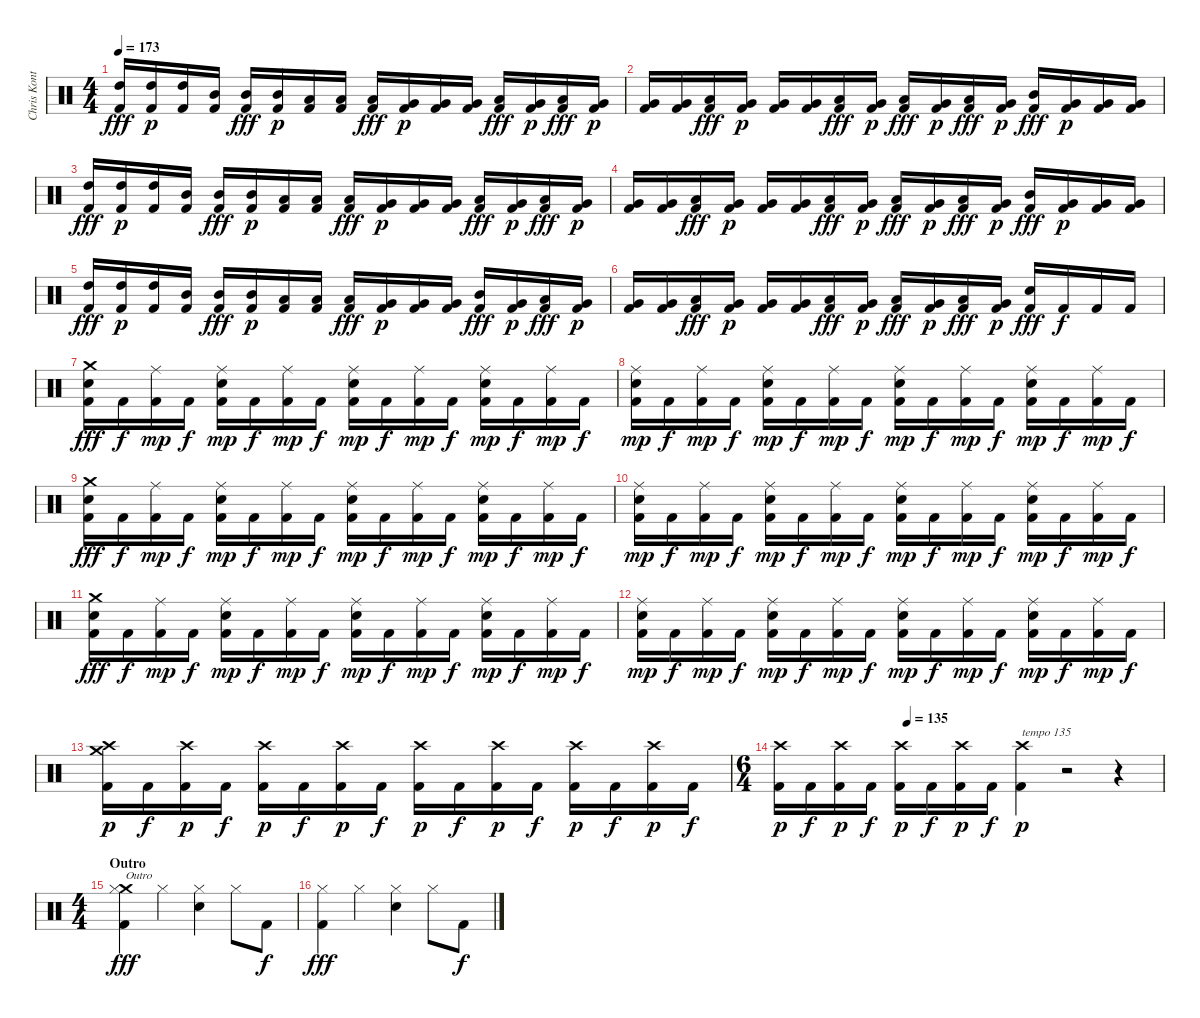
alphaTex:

\track ("Chris Kontos" "Chris Kont") {instrument percussion}
\staff {score}
\articulation defaults
\ts (4 4)
\tempo 173
\clef neutral
\ks c
("High Tom (hit)" "Kick (hit) 2").16{dy fff} ("High Tom (hit)" "Kick (hit) 2").16{dy p} ("High Tom (hit)" "Kick (hit) 2").16 ("Mid Tom (hit)" "Kick (hit) 2").16 ("Mid Tom (hit)" "Kick (hit) 2").16{dy fff} ("Mid Tom (hit)" "Kick (hit) 2").16{dy p} ("Low Tom (hit)" "Kick (hit) 2").16 ("Low Tom (hit)" "Kick (hit) 2").16 ("Low Tom (hit)" "Kick (hit) 2").16{dy fff} ("Very Low Tom (hit)" "Kick (hit) 2").16{dy p} ("Very Low Tom (hit)" "Kick (hit) 2").16 ("Very Low Tom (hit)" "Kick (hit) 2").16 ("Low Tom (hit)" "Kick (hit) 2").16{dy fff} ("Very Low Tom (hit)" "Kick (hit) 2").16{dy p} ("Low Tom (hit)" "Kick (hit) 2").16{dy fff} ("Very Low Tom (hit)" "Kick (hit) 2").16{dy p} |
("Very Low Tom (hit)" "Kick (hit) 2").16 ("Very Low Tom (hit)" "Kick (hit) 2").16 ("Low Tom (hit)" "Kick (hit) 2").16{dy fff} ("Very Low Tom (hit)" "Kick (hit) 2").16{dy p} ("Very Low Tom (hit)" "Kick (hit) 2").16 ("Very Low Tom (hit)" "Kick (hit) 2").16 ("Low Tom (hit)" "Kick (hit) 2").16{dy fff} ("Very Low Tom (hit)" "Kick (hit) 2").16{dy p} ("Low Tom (hit)" "Kick (hit) 2").16{dy fff} ("Very Low Tom (hit)" "Kick (hit) 2").16{dy p} ("Low Tom (hit)" "Kick (hit) 2").16{dy fff} ("Very Low Tom (hit)" "Kick (hit) 2").16{dy p} ("Mid Tom (hit)" "Kick (hit) 2").16{dy fff} ("Very Low Tom (hit)" "Kick (hit) 2").16{dy p} ("Very Low Tom (hit)" "Kick (hit) 2").16 ("Very Low Tom (hit)" "Kick (hit) 2").16 |
("High Tom (hit)" "Kick (hit) 2").16{dy fff} ("High Tom (hit)" "Kick (hit) 2").16{dy p} ("High Tom (hit)" "Kick (hit) 2").16 ("Mid Tom (hit)" "Kick (hit) 2").16 ("Mid Tom (hit)" "Kick (hit) 2").16{dy fff} ("Mid Tom (hit)" "Kick (hit) 2").16{dy p} ("Low Tom (hit)" "Kick (hit) 2").16 ("Low Tom (hit)" "Kick (hit) 2").16 ("Low Tom (hit)" "Kick (hit) 2").16{dy fff} ("Very Low Tom (hit)" "Kick (hit) 2").16{dy p} ("Very Low Tom (hit)" "Kick (hit) 2").16 ("Very Low Tom (hit)" "Kick (hit) 2").16 ("Low Tom (hit)" "Kick (hit) 2").16{dy fff} ("Very Low Tom (hit)" "Kick (hit) 2").16{dy p} ("Low Tom (hit)" "Kick (hit) 2").16{dy fff} ("Very Low Tom (hit)" "Kick (hit) 2").16{dy p} |
("Very Low Tom (hit)" "Kick (hit) 2").16 ("Very Low Tom (hit)" "Kick (hit) 2").16 ("Low Tom (hit)" "Kick (hit) 2").16{dy fff} ("Very Low Tom (hit)" "Kick (hit) 2").16{dy p} ("Very Low Tom (hit)" "Kick (hit) 2").16 ("Very Low Tom (hit)" "Kick (hit) 2").16 ("Low Tom (hit)" "Kick (hit) 2").16{dy fff} ("Very Low Tom (hit)" "Kick (hit) 2").16{dy p} ("Low Tom (hit)" "Kick (hit) 2").16{dy fff} ("Very Low Tom (hit)" "Kick (hit) 2").16{dy p} ("Low Tom (hit)" "Kick (hit) 2").16{dy fff} ("Very Low Tom (hit)" "Kick (hit) 2").16{dy p} ("Mid Tom (hit)" "Kick (hit) 2").16{dy fff} ("Very Low Tom (hit)" "Kick (hit) 2").16{dy p} ("Very Low Tom (hit)" "Kick (hit) 2").16 ("Very Low Tom (hit)" "Kick (hit) 2").16 |
("High Tom (hit)" "Kick (hit) 2").16{dy fff} ("High Tom (hit)" "Kick (hit) 2").16{dy p} ("High Tom (hit)" "Kick (hit) 2").16 ("Mid Tom (hit)" "Kick (hit) 2").16 ("Mid Tom (hit)" "Kick (hit) 2").16{dy fff} ("Mid Tom (hit)" "Kick (hit) 2").16{dy p} ("Low Tom (hit)" "Kick (hit) 2").16 ("Low Tom (hit)" "Kick (hit) 2").16 ("Low Tom (hit)" "Kick (hit) 2").16{dy fff} ("Very Low Tom (hit)" "Kick (hit) 2").16{dy p} ("Very Low Tom (hit)" "Kick (hit) 2").16 ("Very Low Tom (hit)" "Kick (hit) 2").16 ("Mid Tom (hit)" "Kick (hit) 2").16{dy fff} ("Very Low Tom (hit)" "Kick (hit) 2").16{dy p} ("Low Tom (hit)" "Kick (hit) 2").16{dy fff} ("Very Low Tom (hit)" "Kick (hit) 2").16{dy p} |
("Very Low Tom (hit)" "Kick (hit) 2").16 ("Very Low Tom (hit)" "Kick (hit) 2").16 ("Low Tom (hit)" "Kick (hit) 2").16{dy fff} ("Very Low Tom (hit)" "Kick (hit) 2").16{dy p} ("Very Low Tom (hit)" "Kick (hit) 2").16 ("Very Low Tom (hit)" "Kick (hit) 2").16 ("Low Tom (hit)" "Kick (hit) 2").16{dy fff} ("Very Low Tom (hit)" "Kick (hit) 2").16{dy p} ("Low Tom (hit)" "Kick (hit) 2").16{dy fff} ("Very Low Tom (hit)" "Kick (hit) 2").16{dy p} ("Low Tom (hit)" "Kick (hit) 2").16{dy fff} ("Very Low Tom (hit)" "Kick (hit) 2").16{dy p} ("Electric Snare (hit)" "Kick (hit) 2").16{dy fff} "Kick (hit) 2".16{dy f} "Kick (hit) 2".16 "Kick (hit) 2".16 |
("Crash medium (hit)" "Electric Snare (hit)" "Kick (hit) 2").16{dy fff} "Kick (hit) 2".16{dy f} ("Ride (middle)" "Kick (hit) 2").16{dy mp} "Kick (hit) 2".16{dy f} ("Electric Snare (hit)" "Ride (middle)" "Kick (hit) 2").16{dy mp} "Kick (hit) 2".16{dy f} ("Ride (middle)" "Kick (hit) 2").16{dy mp} "Kick (hit) 2".16{dy f} ("Electric Snare (hit)" "Ride (middle)" "Kick (hit) 2").16{dy mp} "Kick (hit) 2".16{dy f} ("Ride (middle)" "Kick (hit) 2").16{dy mp} "Kick (hit) 2".16{dy f} ("Electric Snare (hit)" "Ride (middle)" "Kick (hit) 2").16{dy mp} "Kick (hit) 2".16{dy f} ("Ride (middle)" "Kick (hit) 2").16{dy mp} "Kick (hit) 2".16{dy f} |
("Electric Snare (hit)" "Ride (middle)" "Kick (hit) 2").16{dy mp} "Kick (hit) 2".16{dy f} ("Ride (middle)" "Kick (hit) 2").16{dy mp} "Kick (hit) 2".16{dy f} ("Electric Snare (hit)" "Ride (middle)" "Kick (hit) 2").16{dy mp} "Kick (hit) 2".16{dy f} ("Ride (middle)" "Kick (hit) 2").16{dy mp} "Kick (hit) 2".16{dy f} ("Electric Snare (hit)" "Ride (middle)" "Kick (hit) 2").16{dy mp} "Kick (hit) 2".16{dy f} ("Ride (middle)" "Kick (hit) 2").16{dy mp} "Kick (hit) 2".16{dy f} ("Electric Snare (hit)" "Ride (middle)" "Kick (hit) 2").16{dy mp} "Kick (hit) 2".16{dy f} ("Ride (middle)" "Kick (hit) 2").16{dy mp} "Kick (hit) 2".16{dy f} |
("Crash medium (hit)" "Electric Snare (hit)" "Kick (hit) 2").16{dy fff} "Kick (hit) 2".16{dy f} ("Ride (middle)" "Kick (hit) 2").16{dy mp} "Kick (hit) 2".16{dy f} ("Electric Snare (hit)" "Ride (middle)" "Kick (hit) 2").16{dy mp} "Kick (hit) 2".16{dy f} ("Ride (middle)" "Kick (hit) 2").16{dy mp} "Kick (hit) 2".16{dy f} ("Electric Snare (hit)" "Ride (middle)" "Kick (hit) 2").16{dy mp} "Kick (hit) 2".16{dy f} ("Ride (middle)" "Kick (hit) 2").16{dy mp} "Kick (hit) 2".16{dy f} ("Electric Snare (hit)" "Ride (middle)" "Kick (hit) 2").16{dy mp} "Kick (hit) 2".16{dy f} ("Ride (middle)" "Kick (hit) 2").16{dy mp} "Kick (hit) 2".16{dy f} |
("Electric Snare (hit)" "Ride (middle)" "Kick (hit) 2").16{dy mp} "Kick (hit) 2".16{dy f} ("Ride (middle)" "Kick (hit) 2").16{dy mp} "Kick (hit) 2".16{dy f} ("Electric Snare (hit)" "Ride (middle)" "Kick (hit) 2").16{dy mp} "Kick (hit) 2".16{dy f} ("Ride (middle)" "Kick (hit) 2").16{dy mp} "Kick (hit) 2".16{dy f} ("Electric Snare (hit)" "Ride (middle)" "Kick (hit) 2").16{dy mp} "Kick (hit) 2".16{dy f} ("Ride (middle)" "Kick (hit) 2").16{dy mp} "Kick (hit) 2".16{dy f} ("Electric Snare (hit)" "Ride (middle)" "Kick (hit) 2").16{dy mp} "Kick (hit) 2".16{dy f} ("Ride (middle)" "Kick (hit) 2").16{dy mp} "Kick (hit) 2".16{dy f} |
("Crash medium (hit)" "Electric Snare (hit)" "Kick (hit) 2").16{dy fff} "Kick (hit) 2".16{dy f} ("Ride (middle)" "Kick (hit) 2").16{dy mp} "Kick (hit) 2".16{dy f} ("Electric Snare (hit)" "Ride (middle)" "Kick (hit) 2").16{dy mp} "Kick (hit) 2".16{dy f} ("Ride (middle)" "Kick (hit) 2").16{dy mp} "Kick (hit) 2".16{dy f} ("Electric Snare (hit)" "Ride (middle)" "Kick (hit) 2").16{dy mp} "Kick (hit) 2".16{dy f} ("Ride (middle)" "Kick (hit) 2").16{dy mp} "Kick (hit) 2".16{dy f} ("Electric Snare (hit)" "Ride (middle)" "Kick (hit) 2").16{dy mp} "Kick (hit) 2".16{dy f} ("Ride (middle)" "Kick (hit) 2").16{dy mp} "Kick (hit) 2".16{dy f} |
("Electric Snare (hit)" "Ride (middle)" "Kick (hit) 2").16{dy mp} "Kick (hit) 2".16{dy f} ("Ride (middle)" "Kick (hit) 2").16{dy mp} "Kick (hit) 2".16{dy f} ("Electric Snare (hit)" "Ride (middle)" "Kick (hit) 2").16{dy mp} "Kick (hit) 2".16{dy f} ("Ride (middle)" "Kick (hit) 2").16{dy mp} "Kick (hit) 2".16{dy f} ("Electric Snare (hit)" "Ride (middle)" "Kick (hit) 2").16{dy mp} "Kick (hit) 2".16{dy f} ("Ride (middle)" "Kick (hit) 2").16{dy mp} "Kick (hit) 2".16{dy f} ("Electric Snare (hit)" "Ride (middle)" "Kick (hit) 2").16{dy mp} "Kick (hit) 2".16{dy f} ("Ride (middle)" "Kick (hit) 2").16{dy mp} "Kick (hit) 2".16{dy f} |
("Crash medium (hit)" "Crash high (hit)" "Kick (hit) 2").16{dy p} "Kick (hit) 2".16{dy f} ("Crash high (hit)" "Kick (hit) 2").16{dy p} "Kick (hit) 2".16{dy f} ("Crash high (hit)" "Kick (hit) 2").16{dy p} "Kick (hit) 2".16{dy f} ("Crash high (hit)" "Kick (hit) 2").16{dy p} "Kick (hit) 2".16{dy f} ("Crash high (hit)" "Kick (hit) 2").16{dy p} "Kick (hit) 2".16{dy f} ("Crash high (hit)" "Kick (hit) 2").16{dy p} "Kick (hit) 2".16{dy f} ("Crash high (hit)" "Kick (hit) 2").16{dy p} "Kick (hit) 2".16{dy f} ("Crash high (hit)" "Kick (hit) 2").16{dy p} "Kick (hit) 2".16{dy f} |
\ts (6 4)
\tempo (135 0.3333333333333333)
("Crash high (hit)" "Kick (hit) 2").16{dy p} "Kick (hit) 2".16{dy f} ("Crash high (hit)" "Kick (hit) 2").16{dy p} "Kick (hit) 2".16{dy f} ("Crash high (hit)" "Kick (hit) 2").16{dy p} "Kick (hit) 2".16{dy f} ("Crash high (hit)" "Kick (hit) 2").16{dy p} "Kick (hit) 2".16{dy f} ("Crash high (hit)" "Kick (hit) 2").4{txt "tempo 135" dy p} r.2 r.4 |
\ts (4 4)
\section ("" "Outro")
("Crash medium (hit)" "Hi-Hat (closed)" "Kick (hit) 2").4{txt "Outro" dy fff} "Hi-Hat (closed)".4 ("Electric Snare (hit)" "Hi-Hat (closed)").4 "Hi-Hat (closed)".8 "Kick (hit) 2".8{dy f} |
("Hi-Hat (closed)" "Kick (hit) 2").4{dy fff} "Hi-Hat (closed)".4 ("Electric Snare (hit)" "Hi-Hat (closed)").4 "Hi-Hat (closed)".8 "Kick (hit) 2".8{dy f}
